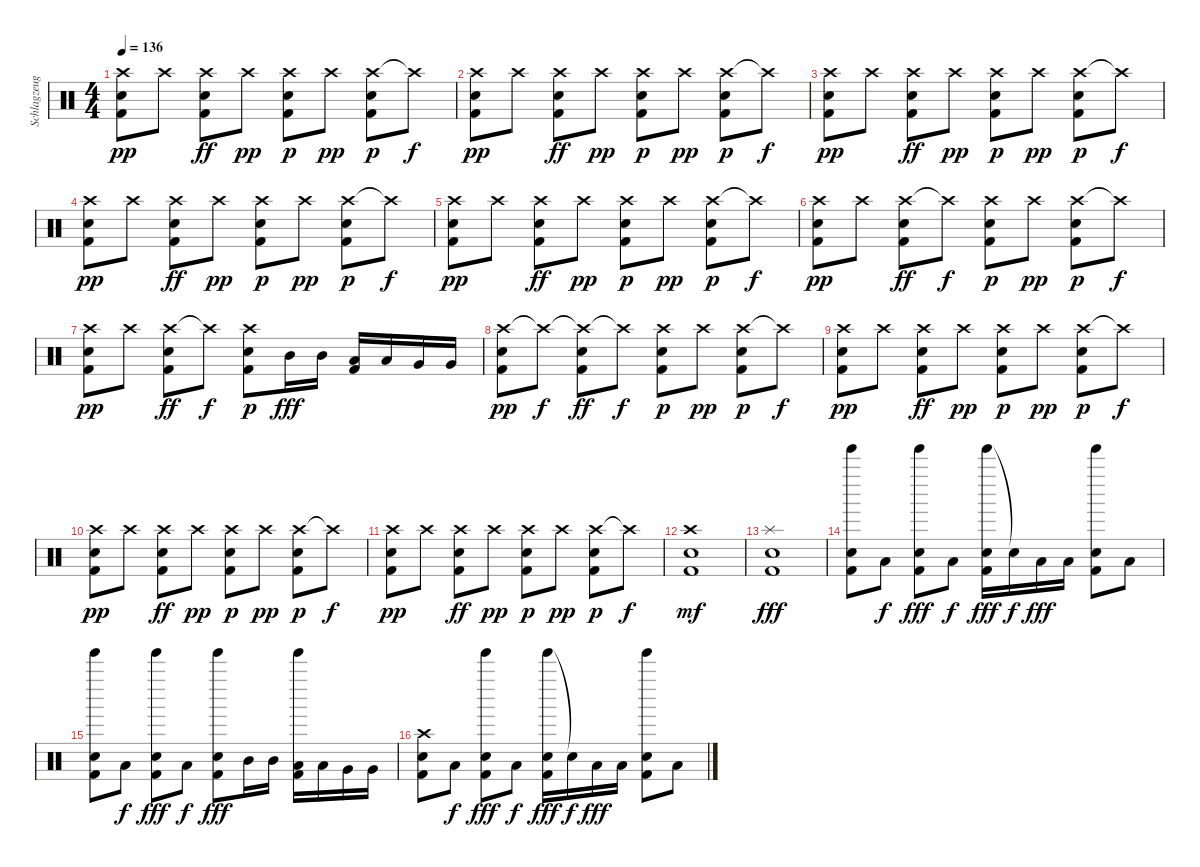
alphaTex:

\track ("Schlagzeug - der Hund Marie" "Schlagzeug") {instrument percussion}
\staff {score}
\articulation defaults
\ts (4 4)
\tempo 136
\clef neutral
\ks c
("Crash high (hit)" "Snare (hit) 2" "Kick (hit) 2").8{dy pp} "Crash high (hit)".8 ("Crash high (hit)" "Snare (hit) 2" "Kick (hit) 2").8{dy ff} "Crash high (hit)".8{dy pp} ("Crash high (hit)" "Snare (hit) 2" "Kick (hit) 2").8{dy p} "Crash high (hit)".8{dy pp} ("Crash high (hit)" "Snare (hit) 2" "Kick (hit) 2").8{dy p} "Crash high (hit)"{t}.8{dy f} |
("Crash high (hit)" "Snare (hit) 2" "Kick (hit) 2").8{dy pp} "Crash high (hit)".8 ("Crash high (hit)" "Snare (hit) 2" "Kick (hit) 2").8{dy ff} "Crash high (hit)".8{dy pp} ("Crash high (hit)" "Snare (hit) 2" "Kick (hit) 2").8{dy p} "Crash high (hit)".8{dy pp} ("Crash high (hit)" "Snare (hit) 2" "Kick (hit) 2").8{dy p} "Crash high (hit)"{t}.8{dy f} |
("Crash high (hit)" "Snare (hit) 2" "Kick (hit) 2").8{dy pp} "Crash high (hit)".8 ("Crash high (hit)" "Snare (hit) 2" "Kick (hit) 2").8{dy ff} "Crash high (hit)".8{dy pp} ("Crash high (hit)" "Snare (hit) 2" "Kick (hit) 2").8{dy p} "Crash high (hit)".8{dy pp} ("Crash high (hit)" "Snare (hit) 2" "Kick (hit) 2").8{dy p} "Crash high (hit)"{t}.8{dy f} |
("Crash high (hit)" "Snare (hit) 2" "Kick (hit) 2").8{dy pp} "Crash high (hit)".8 ("Crash high (hit)" "Snare (hit) 2" "Kick (hit) 2").8{dy ff} "Crash high (hit)".8{dy pp} ("Crash high (hit)" "Snare (hit) 2" "Kick (hit) 2").8{dy p} "Crash high (hit)".8{dy pp} ("Crash high (hit)" "Snare (hit) 2" "Kick (hit) 2").8{dy p} "Crash high (hit)"{t}.8{dy f} |
("Crash high (hit)" "Snare (hit) 2" "Kick (hit) 2").8{dy pp} "Crash high (hit)".8 ("Crash high (hit)" "Snare (hit) 2" "Kick (hit) 2").8{dy ff} "Crash high (hit)".8{dy pp} ("Crash high (hit)" "Snare (hit) 2" "Kick (hit) 2").8{dy p} "Crash high (hit)".8{dy pp} ("Crash high (hit)" "Snare (hit) 2" "Kick (hit) 2").8{dy p} "Crash high (hit)"{t}.8{dy f} |
("Crash high (hit)" "Snare (hit) 2" "Kick (hit) 2").8{dy pp} "Crash high (hit)".8 ("Crash high (hit)" "Snare (hit) 2" "Kick (hit) 2").8{dy ff} "Crash high (hit)"{t}.8{dy f} ("Crash high (hit)" "Snare (hit) 2" "Kick (hit) 2").8{dy p} "Crash high (hit)".8{dy pp} ("Crash high (hit)" "Snare (hit) 2" "Kick (hit) 2").8{dy p} "Crash high (hit)"{t}.8{dy f} |
("Crash high (hit)" "Snare (hit) 2" "Kick (hit) 2").8{dy pp} "Crash high (hit)".8 ("Crash high (hit)" "Snare (hit) 2" "Kick (hit) 2").8{dy ff} "Crash high (hit)"{t}.8{dy f} ("Crash high (hit)" "Snare (hit) 2" "Kick (hit) 2").8{dy p} "Mid Tom (hit)".16{dy fff} "Mid Tom (hit)".16 ("Low Tom (hit)" "Kick (hit) 2").16 "Low Tom (hit)".16 "Very Low Tom (hit)".16 "Very Low Tom (hit)".16 |
("Crash high (hit)" "Snare (hit) 2" "Kick (hit) 2").8{dy pp} "Crash high (hit)"{t}.8{dy f} ("Crash high (hit)"{t} "Snare (hit) 2" "Kick (hit) 2").8{dy ff} "Crash high (hit)"{t}.8{dy f} ("Crash high (hit)" "Snare (hit) 2" "Kick (hit) 2").8{dy p} "Crash high (hit)".8{dy pp} ("Crash high (hit)" "Snare (hit) 2" "Kick (hit) 2").8{dy p} "Crash high (hit)"{t}.8{dy f} |
("Crash high (hit)" "Snare (hit) 2" "Kick (hit) 2").8{dy pp} "Crash high (hit)".8 ("Crash high (hit)" "Snare (hit) 2" "Kick (hit) 2").8{dy ff} "Crash high (hit)".8{dy pp} ("Crash high (hit)" "Snare (hit) 2" "Kick (hit) 2").8{dy p} "Crash high (hit)".8{dy pp} ("Crash high (hit)" "Snare (hit) 2" "Kick (hit) 2").8{dy p} "Crash high (hit)"{t}.8{dy f} |
("Crash high (hit)" "Snare (hit) 2" "Kick (hit) 2").8{dy pp} "Crash high (hit)".8 ("Crash high (hit)" "Snare (hit) 2" "Kick (hit) 2").8{dy ff} "Crash high (hit)".8{dy pp} ("Crash high (hit)" "Snare (hit) 2" "Kick (hit) 2").8{dy p} "Crash high (hit)".8{dy pp} ("Crash high (hit)" "Snare (hit) 2" "Kick (hit) 2").8{dy p} "Crash high (hit)"{t}.8{dy f} |
("Crash high (hit)" "Snare (hit) 2" "Kick (hit) 2").8{dy pp} "Crash high (hit)".8 ("Crash high (hit)" "Snare (hit) 2" "Kick (hit) 2").8{dy ff} "Crash high (hit)".8{dy pp} ("Crash high (hit)" "Snare (hit) 2" "Kick (hit) 2").8{dy p} "Crash high (hit)".8{dy pp} ("Crash high (hit)" "Snare (hit) 2" "Kick (hit) 2").8{dy p} "Crash high (hit)"{t}.8{dy f} |
("Crash high (hit)" "Snare (hit) 2" "Kick (hit) 2").1{dy mf} |
("Splash (hit)" "Snare (hit) 2" "Kick (hit) 2").1{dy fff} |
("Tinkle Bell (hit)" "Snare (hit) 2" "Kick (hit) 2").8 "Low Tom (hit)".8{dy f} ("Tinkle Bell (hit)" "Snare (hit) 2" "Kick (hit) 2").8{dy fff} "Low Tom (hit)".8{dy f} ("Tinkle Bell (hit)" "Snare (hit) 2" "Kick (hit) 2").16{dy fff} "Snare (hit) 2"{t}.16{dy f} "Low Tom (hit)".16{dy fff} "Low Tom (hit)".16 ("Tinkle Bell (hit)" "Snare (hit) 2" "Kick (hit) 2").8 "Low Tom (hit)".8 |
("Tinkle Bell (hit)" "Snare (hit) 2" "Kick (hit) 2").8 "Low Tom (hit)".8{dy f} ("Tinkle Bell (hit)" "Snare (hit) 2" "Kick (hit) 2").8{dy fff} "Low Tom (hit)".8{dy f} ("Tinkle Bell (hit)" "Snare (hit) 2" "Kick (hit) 2").8{dy fff} "Mid Tom (hit)".16 "Mid Tom (hit)".16 ("Tinkle Bell (hit)" "Low Tom (hit)" "Kick (hit) 2").16 "Low Tom (hit)".16 "Very Low Tom (hit)".16 "Very Low Tom (hit)".16 |
("Crash high (hit)" "Snare (hit) 2" "Kick (hit) 2").8 "Low Tom (hit)".8{dy f} ("Tinkle Bell (hit)" "Snare (hit) 2" "Kick (hit) 2").8{dy fff} "Low Tom (hit)".8{dy f} ("Tinkle Bell (hit)" "Snare (hit) 2" "Kick (hit) 2").16{dy fff} "Snare (hit) 2"{t}.16{dy f} "Low Tom (hit)".16{dy fff} "Low Tom (hit)".16 ("Tinkle Bell (hit)" "Snare (hit) 2" "Kick (hit) 2").8 "Low Tom (hit)".8
